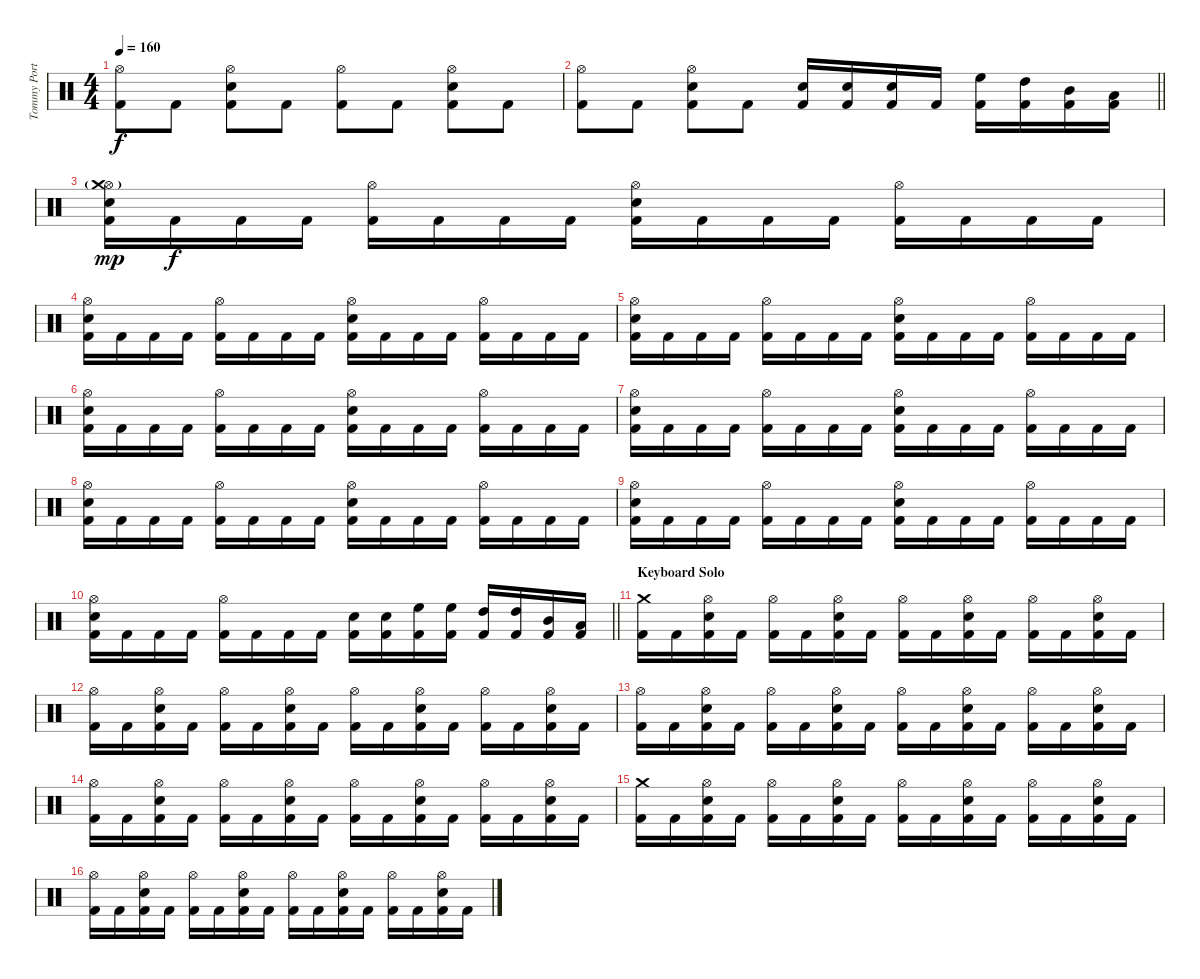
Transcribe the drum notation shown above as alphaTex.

\track ("Tommy Portino" "Tommy Port") {instrument percussion}
\staff {score}
\articulation defaults
\ts (4 4)
\tempo 160
\clef neutral
\ks c
("Hi-Hat (open)" "Kick (hit) 2").8{dy f} "Kick (hit) 2".8 ("Hi-Hat (open)" "Snare (hit) 2" "Kick (hit) 2").8 "Kick (hit) 2".8 ("Hi-Hat (open)" "Kick (hit) 2").8 "Kick (hit) 2".8 ("Hi-Hat (open)" "Snare (hit) 2" "Kick (hit) 2").8 "Kick (hit) 2".8 |
\barLineRight lightlight
("Hi-Hat (open)" "Kick (hit) 2").8 "Kick (hit) 2".8 ("Hi-Hat (open)" "Snare (hit) 2" "Kick (hit) 2").8 "Kick (hit) 2".8 ("Snare (hit) 2" "Kick (hit) 2").16 ("Snare (hit) 2" "Kick (hit) 2").16 ("Snare (hit) 2" "Kick (hit) 2").16 "Kick (hit) 2".16 ("High Floor Tom (hit)" "Kick (hit) 2").16 ("High Tom (hit)" "Kick (hit) 2").16 ("Mid Tom (hit)" "Kick (hit) 2").16 ("Low Tom (hit)" "Kick (hit) 2").16 |
("Hi-Hat (open)"{g} "Crash medium (hit)" "Snare (hit) 2" "Kick (hit) 2").16{dy mp} "Kick (hit) 2".16{dy f} "Kick (hit) 2".16 "Kick (hit) 2".16 ("Hi-Hat (open)" "Kick (hit) 2").16 "Kick (hit) 2".16 "Kick (hit) 2".16 "Kick (hit) 2".16 ("Hi-Hat (open)" "Snare (hit) 2" "Kick (hit) 2").16 "Kick (hit) 2".16 "Kick (hit) 2".16 "Kick (hit) 2".16 ("Hi-Hat (open)" "Kick (hit) 2").16 "Kick (hit) 2".16 "Kick (hit) 2".16 "Kick (hit) 2".16 |
("Hi-Hat (open)" "Snare (hit) 2" "Kick (hit) 2").16 "Kick (hit) 2".16 "Kick (hit) 2".16 "Kick (hit) 2".16 ("Hi-Hat (open)" "Kick (hit) 2").16 "Kick (hit) 2".16 "Kick (hit) 2".16 "Kick (hit) 2".16 ("Hi-Hat (open)" "Snare (hit) 2" "Kick (hit) 2").16 "Kick (hit) 2".16 "Kick (hit) 2".16 "Kick (hit) 2".16 ("Hi-Hat (open)" "Kick (hit) 2").16 "Kick (hit) 2".16 "Kick (hit) 2".16 "Kick (hit) 2".16 |
("Hi-Hat (open)" "Snare (hit) 2" "Kick (hit) 2").16 "Kick (hit) 2".16 "Kick (hit) 2".16 "Kick (hit) 2".16 ("Hi-Hat (open)" "Kick (hit) 2").16 "Kick (hit) 2".16 "Kick (hit) 2".16 "Kick (hit) 2".16 ("Hi-Hat (open)" "Snare (hit) 2" "Kick (hit) 2").16 "Kick (hit) 2".16 "Kick (hit) 2".16 "Kick (hit) 2".16 ("Hi-Hat (open)" "Kick (hit) 2").16 "Kick (hit) 2".16 "Kick (hit) 2".16 "Kick (hit) 2".16 |
("Hi-Hat (open)" "Snare (hit) 2" "Kick (hit) 2").16 "Kick (hit) 2".16 "Kick (hit) 2".16 "Kick (hit) 2".16 ("Hi-Hat (open)" "Kick (hit) 2").16 "Kick (hit) 2".16 "Kick (hit) 2".16 "Kick (hit) 2".16 ("Hi-Hat (open)" "Snare (hit) 2" "Kick (hit) 2").16 "Kick (hit) 2".16 "Kick (hit) 2".16 "Kick (hit) 2".16 ("Hi-Hat (open)" "Kick (hit) 2").16 "Kick (hit) 2".16 "Kick (hit) 2".16 "Kick (hit) 2".16 |
("Hi-Hat (open)" "Snare (hit) 2" "Kick (hit) 2").16 "Kick (hit) 2".16 "Kick (hit) 2".16 "Kick (hit) 2".16 ("Hi-Hat (open)" "Kick (hit) 2").16 "Kick (hit) 2".16 "Kick (hit) 2".16 "Kick (hit) 2".16 ("Hi-Hat (open)" "Snare (hit) 2" "Kick (hit) 2").16 "Kick (hit) 2".16 "Kick (hit) 2".16 "Kick (hit) 2".16 ("Hi-Hat (open)" "Kick (hit) 2").16 "Kick (hit) 2".16 "Kick (hit) 2".16 "Kick (hit) 2".16 |
("Hi-Hat (open)" "Snare (hit) 2" "Kick (hit) 2").16 "Kick (hit) 2".16 "Kick (hit) 2".16 "Kick (hit) 2".16 ("Hi-Hat (open)" "Kick (hit) 2").16 "Kick (hit) 2".16 "Kick (hit) 2".16 "Kick (hit) 2".16 ("Hi-Hat (open)" "Snare (hit) 2" "Kick (hit) 2").16 "Kick (hit) 2".16 "Kick (hit) 2".16 "Kick (hit) 2".16 ("Hi-Hat (open)" "Kick (hit) 2").16 "Kick (hit) 2".16 "Kick (hit) 2".16 "Kick (hit) 2".16 |
("Hi-Hat (open)" "Snare (hit) 2" "Kick (hit) 2").16 "Kick (hit) 2".16 "Kick (hit) 2".16 "Kick (hit) 2".16 ("Hi-Hat (open)" "Kick (hit) 2").16 "Kick (hit) 2".16 "Kick (hit) 2".16 "Kick (hit) 2".16 ("Hi-Hat (open)" "Snare (hit) 2" "Kick (hit) 2").16 "Kick (hit) 2".16 "Kick (hit) 2".16 "Kick (hit) 2".16 ("Hi-Hat (open)" "Kick (hit) 2").16 "Kick (hit) 2".16 "Kick (hit) 2".16 "Kick (hit) 2".16 |
\barLineRight lightlight
("Hi-Hat (open)" "Snare (hit) 2" "Kick (hit) 2").16 "Kick (hit) 2".16 "Kick (hit) 2".16 "Kick (hit) 2".16 ("Hi-Hat (open)" "Kick (hit) 2").16 "Kick (hit) 2".16 "Kick (hit) 2".16 "Kick (hit) 2".16 ("Snare (hit) 2" "Kick (hit) 2").16 ("Snare (hit) 2" "Kick (hit) 2").16 ("High Floor Tom (hit)" "Kick (hit) 2").16 ("High Floor Tom (hit)" "Kick (hit) 2").16 ("High Tom (hit)" "Kick (hit) 2").16 ("High Tom (hit)" "Kick (hit) 2").16 ("Mid Tom (hit)" "Kick (hit) 2").16 ("Low Tom (hit)" "Kick (hit) 2").16 |
\section ("" "Keyboard Solo")
("Crash medium (hit)" "Kick (hit) 2").16{volume 10} "Kick (hit) 2".16 ("Hi-Hat (open)" "Snare (hit) 2" "Kick (hit) 2").16 "Kick (hit) 2".16 ("Hi-Hat (open)" "Kick (hit) 2").16 "Kick (hit) 2".16 ("Hi-Hat (open)" "Snare (hit) 2" "Kick (hit) 2").16 "Kick (hit) 2".16 ("Hi-Hat (open)" "Kick (hit) 2").16 "Kick (hit) 2".16 ("Hi-Hat (open)" "Snare (hit) 2" "Kick (hit) 2").16 "Kick (hit) 2".16 ("Hi-Hat (open)" "Kick (hit) 2").16 "Kick (hit) 2".16 ("Hi-Hat (open)" "Snare (hit) 2" "Kick (hit) 2").16 "Kick (hit) 2".16 |
("Hi-Hat (open)" "Kick (hit) 2").16 "Kick (hit) 2".16 ("Hi-Hat (open)" "Snare (hit) 2" "Kick (hit) 2").16 "Kick (hit) 2".16 ("Hi-Hat (open)" "Kick (hit) 2").16 "Kick (hit) 2".16 ("Hi-Hat (open)" "Snare (hit) 2" "Kick (hit) 2").16 "Kick (hit) 2".16 ("Hi-Hat (open)" "Kick (hit) 2").16 "Kick (hit) 2".16 ("Hi-Hat (open)" "Snare (hit) 2" "Kick (hit) 2").16 "Kick (hit) 2".16 ("Hi-Hat (open)" "Kick (hit) 2").16 "Kick (hit) 2".16 ("Hi-Hat (open)" "Snare (hit) 2" "Kick (hit) 2").16 "Kick (hit) 2".16 |
("Hi-Hat (open)" "Kick (hit) 2").16 "Kick (hit) 2".16 ("Hi-Hat (open)" "Snare (hit) 2" "Kick (hit) 2").16 "Kick (hit) 2".16 ("Hi-Hat (open)" "Kick (hit) 2").16 "Kick (hit) 2".16 ("Hi-Hat (open)" "Snare (hit) 2" "Kick (hit) 2").16 "Kick (hit) 2".16 ("Hi-Hat (open)" "Kick (hit) 2").16 "Kick (hit) 2".16 ("Hi-Hat (open)" "Snare (hit) 2" "Kick (hit) 2").16 "Kick (hit) 2".16 ("Hi-Hat (open)" "Kick (hit) 2").16 "Kick (hit) 2".16 ("Hi-Hat (open)" "Snare (hit) 2" "Kick (hit) 2").16 "Kick (hit) 2".16 |
("Hi-Hat (open)" "Kick (hit) 2").16 "Kick (hit) 2".16 ("Hi-Hat (open)" "Snare (hit) 2" "Kick (hit) 2").16 "Kick (hit) 2".16 ("Hi-Hat (open)" "Kick (hit) 2").16 "Kick (hit) 2".16 ("Hi-Hat (open)" "Snare (hit) 2" "Kick (hit) 2").16 "Kick (hit) 2".16 ("Hi-Hat (open)" "Kick (hit) 2").16 "Kick (hit) 2".16 ("Hi-Hat (open)" "Snare (hit) 2" "Kick (hit) 2").16 "Kick (hit) 2".16 ("Hi-Hat (open)" "Kick (hit) 2").16 "Kick (hit) 2".16 ("Hi-Hat (open)" "Snare (hit) 2" "Kick (hit) 2").16 "Kick (hit) 2".16 |
("Crash medium (hit)" "Kick (hit) 2").16 "Kick (hit) 2".16 ("Hi-Hat (open)" "Snare (hit) 2" "Kick (hit) 2").16 "Kick (hit) 2".16 ("Hi-Hat (open)" "Kick (hit) 2").16 "Kick (hit) 2".16 ("Hi-Hat (open)" "Snare (hit) 2" "Kick (hit) 2").16 "Kick (hit) 2".16 ("Hi-Hat (open)" "Kick (hit) 2").16 "Kick (hit) 2".16 ("Hi-Hat (open)" "Snare (hit) 2" "Kick (hit) 2").16 "Kick (hit) 2".16 ("Hi-Hat (open)" "Kick (hit) 2").16 "Kick (hit) 2".16 ("Hi-Hat (open)" "Snare (hit) 2" "Kick (hit) 2").16 "Kick (hit) 2".16 |
("Hi-Hat (open)" "Kick (hit) 2").16 "Kick (hit) 2".16 ("Hi-Hat (open)" "Snare (hit) 2" "Kick (hit) 2").16 "Kick (hit) 2".16 ("Hi-Hat (open)" "Kick (hit) 2").16 "Kick (hit) 2".16 ("Hi-Hat (open)" "Snare (hit) 2" "Kick (hit) 2").16 "Kick (hit) 2".16 ("Hi-Hat (open)" "Kick (hit) 2").16 "Kick (hit) 2".16 ("Hi-Hat (open)" "Snare (hit) 2" "Kick (hit) 2").16 "Kick (hit) 2".16 ("Hi-Hat (open)" "Kick (hit) 2").16 "Kick (hit) 2".16 ("Hi-Hat (open)" "Snare (hit) 2" "Kick (hit) 2").16 "Kick (hit) 2".16
